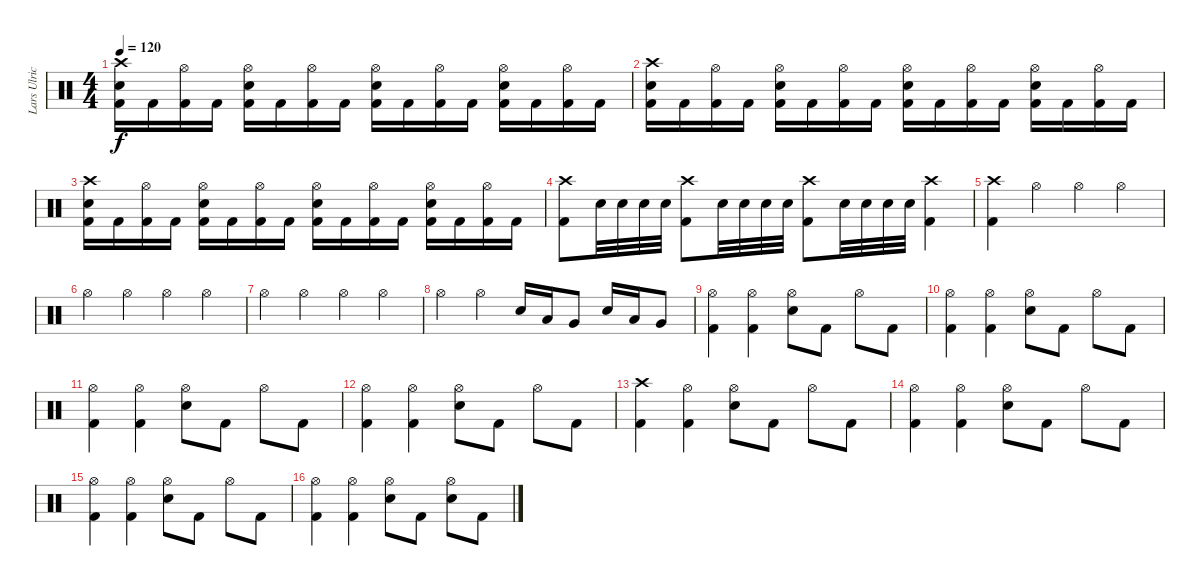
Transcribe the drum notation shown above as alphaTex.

\track ("Lars Ulrich" "Lars Ulric") {instrument percussion}
\staff {score}
\articulation defaults
\ts (4 4)
\tempo 120
\clef neutral
\ks c
("Crash high (hit)" "Electric Snare (hit)" "Kick (hit) 2").16{dy f} "Kick (hit) 2".16 ("Hi-Hat (open)" "Kick (hit) 2").16 "Kick (hit) 2".16 ("Hi-Hat (open)" "Electric Snare (hit)" "Kick (hit) 2").16 "Kick (hit) 2".16 ("Hi-Hat (open)" "Kick (hit) 2").16 "Kick (hit) 2".16 ("Hi-Hat (open)" "Electric Snare (hit)" "Kick (hit) 2").16 "Kick (hit) 2".16 ("Hi-Hat (open)" "Kick (hit) 2").16 "Kick (hit) 2".16 ("Hi-Hat (open)" "Electric Snare (hit)" "Kick (hit) 2").16 "Kick (hit) 2".16 ("Hi-Hat (open)" "Kick (hit) 2").16 "Kick (hit) 2".16 |
("Crash high (hit)" "Electric Snare (hit)" "Kick (hit) 2").16 "Kick (hit) 2".16 ("Hi-Hat (open)" "Kick (hit) 2").16 "Kick (hit) 2".16 ("Hi-Hat (open)" "Electric Snare (hit)" "Kick (hit) 2").16 "Kick (hit) 2".16 ("Hi-Hat (open)" "Kick (hit) 2").16 "Kick (hit) 2".16 ("Hi-Hat (open)" "Electric Snare (hit)" "Kick (hit) 2").16 "Kick (hit) 2".16 ("Hi-Hat (open)" "Kick (hit) 2").16 "Kick (hit) 2".16 ("Hi-Hat (open)" "Electric Snare (hit)" "Kick (hit) 2").16 "Kick (hit) 2".16 ("Hi-Hat (open)" "Kick (hit) 2").16 "Kick (hit) 2".16 |
("Crash high (hit)" "Electric Snare (hit)" "Kick (hit) 2").16 "Kick (hit) 2".16 ("Hi-Hat (open)" "Kick (hit) 2").16 "Kick (hit) 2".16 ("Hi-Hat (open)" "Electric Snare (hit)" "Kick (hit) 2").16 "Kick (hit) 2".16 ("Hi-Hat (open)" "Kick (hit) 2").16 "Kick (hit) 2".16 ("Hi-Hat (open)" "Electric Snare (hit)" "Kick (hit) 2").16 "Kick (hit) 2".16 ("Hi-Hat (open)" "Kick (hit) 2").16 "Kick (hit) 2".16 ("Hi-Hat (open)" "Electric Snare (hit)" "Kick (hit) 2").16 "Kick (hit) 2".16 ("Hi-Hat (open)" "Kick (hit) 2").16 "Kick (hit) 2".16 |
("Kick (hit) 2" "Crash high (hit)").8 "Electric Snare (hit)".32 "Electric Snare (hit)".32 "Electric Snare (hit)".32 "Electric Snare (hit)".32 ("Kick (hit) 2" "Crash high (hit)").8 "Electric Snare (hit)".32 "Electric Snare (hit)".32 "Electric Snare (hit)".32 "Electric Snare (hit)".32 ("Kick (hit) 2" "Crash high (hit)").8 "Electric Snare (hit)".32 "Electric Snare (hit)".32 "Electric Snare (hit)".32 "Electric Snare (hit)".32 ("Kick (hit) 2" "Crash high (hit)").4 |
("Crash high (hit)" "Kick (hit) 2").4 "Hi-Hat (open)".4 "Hi-Hat (open)".4 "Hi-Hat (open)".4 |
"Hi-Hat (open)".4 "Hi-Hat (open)".4 "Hi-Hat (open)".4 "Hi-Hat (open)".4 |
"Hi-Hat (open)".4 "Hi-Hat (open)".4 "Hi-Hat (open)".4 "Hi-Hat (open)".4 |
"Hi-Hat (open)".4 "Hi-Hat (open)".4 "Electric Snare (hit)".16 "Low Tom (hit)".16 "Very Low Tom (hit)".8 "Electric Snare (hit)".16 "Low Tom (hit)".16 "Very Low Tom (hit)".8 |
("Hi-Hat (open)" "Kick (hit) 2").4 ("Hi-Hat (open)" "Kick (hit) 2").4 ("Hi-Hat (open)" "Electric Snare (hit)").8 "Kick (hit) 2".8 "Hi-Hat (open)".8 "Kick (hit) 2".8 |
("Hi-Hat (open)" "Kick (hit) 2").4 ("Hi-Hat (open)" "Kick (hit) 2").4 ("Hi-Hat (open)" "Electric Snare (hit)").8 "Kick (hit) 2".8 "Hi-Hat (open)".8 "Kick (hit) 2".8 |
("Hi-Hat (open)" "Kick (hit) 2").4 ("Hi-Hat (open)" "Kick (hit) 2").4 ("Hi-Hat (open)" "Electric Snare (hit)").8 "Kick (hit) 2".8 "Hi-Hat (open)".8 "Kick (hit) 2".8 |
("Hi-Hat (open)" "Kick (hit) 2").4 ("Hi-Hat (open)" "Kick (hit) 2").4 ("Hi-Hat (open)" "Electric Snare (hit)").8 "Kick (hit) 2".8 "Hi-Hat (open)".8 "Kick (hit) 2".8 |
("Crash high (hit)" "Kick (hit) 2").4 ("Hi-Hat (open)" "Kick (hit) 2").4 ("Hi-Hat (open)" "Electric Snare (hit)").8 "Kick (hit) 2".8 "Hi-Hat (open)".8 "Kick (hit) 2".8 |
("Hi-Hat (open)" "Kick (hit) 2").4 ("Hi-Hat (open)" "Kick (hit) 2").4 ("Hi-Hat (open)" "Electric Snare (hit)").8 "Kick (hit) 2".8 "Hi-Hat (open)".8 "Kick (hit) 2".8 |
("Hi-Hat (open)" "Kick (hit) 2").4 ("Hi-Hat (open)" "Kick (hit) 2").4 ("Hi-Hat (open)" "Electric Snare (hit)").8 "Kick (hit) 2".8 "Hi-Hat (open)".8 "Kick (hit) 2".8 |
("Hi-Hat (open)" "Kick (hit) 2").4 ("Hi-Hat (open)" "Kick (hit) 2").4 ("Hi-Hat (open)" "Electric Snare (hit)").8 "Kick (hit) 2".8 ("Hi-Hat (open)" "Electric Snare (hit)").8 "Kick (hit) 2".8
